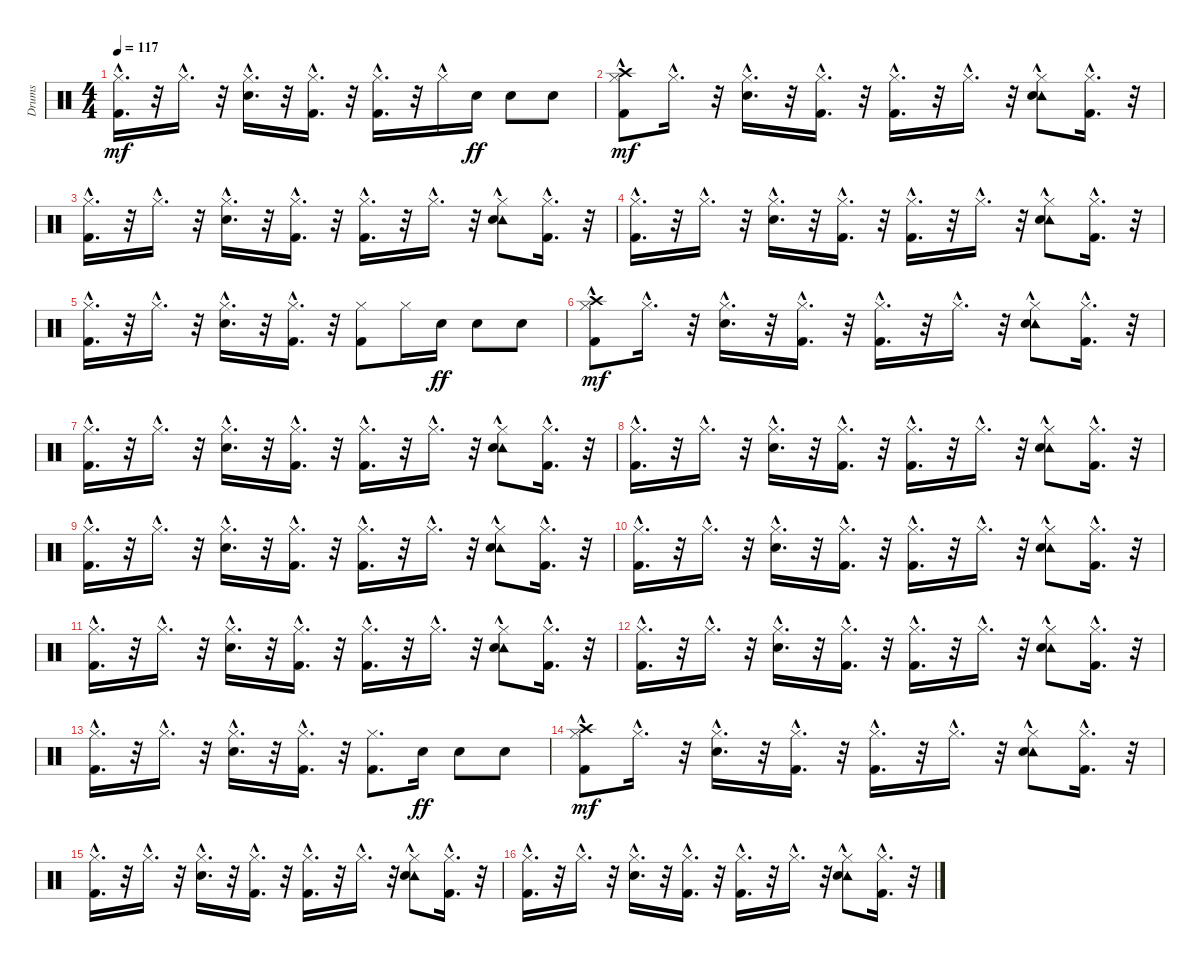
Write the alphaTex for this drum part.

\track ("Drums" "Drums") {instrument percussion}
\staff {score}
\articulation defaults
\ts (4 4)
\tempo 117
\clef neutral
\ks c
("Kick (hit) 2"{hac} "Hi-Hat (closed)"{hac}).16{d dy mf} r.32 "Hi-Hat (closed)"{hac}.16{d} r.32 ("Snare (hit) 2"{hac} "Hi-Hat (closed)"{hac}).16{d} r.32 ("Kick (hit) 2"{hac} "Hi-Hat (closed)"{hac}).16{d} r.32 ("Kick (hit) 2"{hac} "Hi-Hat (closed)"{hac}).16{d} r.32 "Hi-Hat (closed)"{hac}.16 "Snare (hit) 2".16{dy ff} "Snare (hit) 2".8 "Snare (hit) 2".8 |
("Crash high (hit)" "Kick (hit) 2"{hac} "Hi-Hat (closed)"{hac}).8{dy mf} "Hi-Hat (closed)"{hac}.16{d} r.32 ("Snare (hit) 2"{hac} "Hi-Hat (closed)"{hac}).16{d} r.32 ("Kick (hit) 2"{hac} "Hi-Hat (closed)"{hac}).16{d} r.32 ("Kick (hit) 2"{hac} "Hi-Hat (closed)"{hac}).16{d} r.32 "Hi-Hat (closed)"{hac}.16{d} r.32 ("Tambourine (hit)" "Snare (hit) 2"{hac} "Hi-Hat (closed)"{hac}).8 ("Kick (hit) 2"{hac} "Hi-Hat (closed)"{hac}).16{d} r.32 |
("Kick (hit) 2"{hac} "Hi-Hat (closed)"{hac}).16{d} r.32 "Hi-Hat (closed)"{hac}.16{d} r.32 ("Snare (hit) 2"{hac} "Hi-Hat (closed)"{hac}).16{d} r.32 ("Kick (hit) 2"{hac} "Hi-Hat (closed)"{hac}).16{d} r.32 ("Kick (hit) 2"{hac} "Hi-Hat (closed)"{hac}).16{d} r.32 "Hi-Hat (closed)"{hac}.16{d} r.32 ("Tambourine (hit)" "Snare (hit) 2"{hac} "Hi-Hat (closed)"{hac}).8 ("Kick (hit) 2"{hac} "Hi-Hat (closed)"{hac}).16{d} r.32 |
("Kick (hit) 2"{hac} "Hi-Hat (closed)"{hac}).16{d} r.32 "Hi-Hat (closed)"{hac}.16{d} r.32 ("Snare (hit) 2"{hac} "Hi-Hat (closed)"{hac}).16{d} r.32 ("Kick (hit) 2"{hac} "Hi-Hat (closed)"{hac}).16{d} r.32 ("Kick (hit) 2"{hac} "Hi-Hat (closed)"{hac}).16{d} r.32 "Hi-Hat (closed)"{hac}.16{d} r.32 ("Tambourine (hit)" "Snare (hit) 2"{hac} "Hi-Hat (closed)"{hac}).8 ("Kick (hit) 2"{hac} "Hi-Hat (closed)"{hac}).16{d} r.32 |
("Kick (hit) 2"{hac} "Hi-Hat (closed)"{hac}).16{d} r.32 "Hi-Hat (closed)"{hac}.16{d} r.32 ("Snare (hit) 2"{hac} "Hi-Hat (closed)"{hac}).16{d} r.32 ("Kick (hit) 2"{hac} "Hi-Hat (closed)"{hac}).16{d} r.32 ("Kick (hit) 2" "Hi-Hat (closed)").8 "Hi-Hat (closed)".16 "Snare (hit) 2".16{dy ff} "Snare (hit) 2".8 "Snare (hit) 2".8 |
("Crash high (hit)" "Kick (hit) 2"{hac} "Hi-Hat (closed)"{hac}).8{dy mf} "Hi-Hat (closed)"{hac}.16{d} r.32 ("Snare (hit) 2"{hac} "Hi-Hat (closed)"{hac}).16{d} r.32 ("Kick (hit) 2"{hac} "Hi-Hat (closed)"{hac}).16{d} r.32 ("Kick (hit) 2"{hac} "Hi-Hat (closed)"{hac}).16{d} r.32 "Hi-Hat (closed)"{hac}.16{d} r.32 ("Tambourine (hit)" "Snare (hit) 2"{hac} "Hi-Hat (closed)"{hac}).8 ("Kick (hit) 2"{hac} "Hi-Hat (closed)"{hac}).16{d} r.32 |
("Kick (hit) 2"{hac} "Hi-Hat (closed)"{hac}).16{d} r.32 "Hi-Hat (closed)"{hac}.16{d} r.32 ("Snare (hit) 2"{hac} "Hi-Hat (closed)"{hac}).16{d} r.32 ("Kick (hit) 2"{hac} "Hi-Hat (closed)"{hac}).16{d} r.32 ("Kick (hit) 2"{hac} "Hi-Hat (closed)"{hac}).16{d} r.32 "Hi-Hat (closed)"{hac}.16{d} r.32 ("Tambourine (hit)" "Snare (hit) 2"{hac} "Hi-Hat (closed)"{hac}).8 ("Kick (hit) 2"{hac} "Hi-Hat (closed)"{hac}).16{d} r.32 |
("Kick (hit) 2"{hac} "Hi-Hat (closed)"{hac}).16{d} r.32 "Hi-Hat (closed)"{hac}.16{d} r.32 ("Snare (hit) 2"{hac} "Hi-Hat (closed)"{hac}).16{d} r.32 ("Kick (hit) 2"{hac} "Hi-Hat (closed)"{hac}).16{d} r.32 ("Kick (hit) 2"{hac} "Hi-Hat (closed)"{hac}).16{d} r.32 "Hi-Hat (closed)"{hac}.16{d} r.32 ("Tambourine (hit)" "Snare (hit) 2"{hac} "Hi-Hat (closed)"{hac}).8 ("Kick (hit) 2"{hac} "Hi-Hat (closed)"{hac}).16{d} r.32 |
("Kick (hit) 2"{hac} "Hi-Hat (closed)"{hac}).16{d} r.32 "Hi-Hat (closed)"{hac}.16{d} r.32 ("Snare (hit) 2"{hac} "Hi-Hat (closed)"{hac}).16{d} r.32 ("Kick (hit) 2"{hac} "Hi-Hat (closed)"{hac}).16{d} r.32 ("Kick (hit) 2"{hac} "Hi-Hat (closed)"{hac}).16{d} r.32 "Hi-Hat (closed)"{hac}.16{d} r.32 ("Tambourine (hit)" "Snare (hit) 2"{hac} "Hi-Hat (closed)"{hac}).8 ("Kick (hit) 2"{hac} "Hi-Hat (closed)"{hac}).16{d} r.32 |
("Kick (hit) 2"{hac} "Hi-Hat (closed)"{hac}).16{d} r.32 "Hi-Hat (closed)"{hac}.16{d} r.32 ("Snare (hit) 2"{hac} "Hi-Hat (closed)"{hac}).16{d} r.32 ("Kick (hit) 2"{hac} "Hi-Hat (closed)"{hac}).16{d} r.32 ("Kick (hit) 2"{hac} "Hi-Hat (closed)"{hac}).16{d} r.32 "Hi-Hat (closed)"{hac}.16{d} r.32 ("Tambourine (hit)" "Snare (hit) 2"{hac} "Hi-Hat (closed)"{hac}).8 ("Kick (hit) 2"{hac} "Hi-Hat (closed)"{hac}).16{d} r.32 |
("Kick (hit) 2"{hac} "Hi-Hat (closed)"{hac}).16{d} r.32 "Hi-Hat (closed)"{hac}.16{d} r.32 ("Snare (hit) 2"{hac} "Hi-Hat (closed)"{hac}).16{d} r.32 ("Kick (hit) 2"{hac} "Hi-Hat (closed)"{hac}).16{d} r.32 ("Kick (hit) 2"{hac} "Hi-Hat (closed)"{hac}).16{d} r.32 "Hi-Hat (closed)"{hac}.16{d} r.32 ("Tambourine (hit)" "Snare (hit) 2"{hac} "Hi-Hat (closed)"{hac}).8 ("Kick (hit) 2"{hac} "Hi-Hat (closed)"{hac}).16{d} r.32 |
("Kick (hit) 2"{hac} "Hi-Hat (closed)"{hac}).16{d} r.32 "Hi-Hat (closed)"{hac}.16{d} r.32 ("Snare (hit) 2"{hac} "Hi-Hat (closed)"{hac}).16{d} r.32 ("Kick (hit) 2"{hac} "Hi-Hat (closed)"{hac}).16{d} r.32 ("Kick (hit) 2"{hac} "Hi-Hat (closed)"{hac}).16{d} r.32 "Hi-Hat (closed)"{hac}.16{d} r.32 ("Tambourine (hit)" "Snare (hit) 2"{hac} "Hi-Hat (closed)"{hac}).8 ("Kick (hit) 2"{hac} "Hi-Hat (closed)"{hac}).16{d} r.32 |
("Kick (hit) 2"{hac} "Hi-Hat (closed)"{hac}).16{d} r.32 "Hi-Hat (closed)"{hac}.16{d} r.32 ("Snare (hit) 2"{hac} "Hi-Hat (closed)"{hac}).16{d} r.32 ("Kick (hit) 2"{hac} "Hi-Hat (closed)"{hac}).16{d} r.32 ("Kick (hit) 2" "Hi-Hat (closed)").8{d} "Snare (hit) 2".16{dy ff} "Snare (hit) 2".8 "Snare (hit) 2".8 |
("Crash high (hit)" "Kick (hit) 2"{hac} "Hi-Hat (closed)"{hac}).8{dy mf} "Hi-Hat (closed)"{hac}.16{d} r.32 ("Snare (hit) 2"{hac} "Hi-Hat (closed)"{hac}).16{d} r.32 ("Kick (hit) 2"{hac} "Hi-Hat (closed)"{hac}).16{d} r.32 ("Kick (hit) 2"{hac} "Hi-Hat (closed)"{hac}).16{d} r.32 "Hi-Hat (closed)"{hac}.16{d} r.32 ("Tambourine (hit)" "Snare (hit) 2"{hac} "Hi-Hat (closed)"{hac}).8 ("Kick (hit) 2"{hac} "Hi-Hat (closed)"{hac}).16{d} r.32 |
("Kick (hit) 2"{hac} "Hi-Hat (closed)"{hac}).16{d} r.32 "Hi-Hat (closed)"{hac}.16{d} r.32 ("Snare (hit) 2"{hac} "Hi-Hat (closed)"{hac}).16{d} r.32 ("Kick (hit) 2"{hac} "Hi-Hat (closed)"{hac}).16{d} r.32 ("Kick (hit) 2"{hac} "Hi-Hat (closed)"{hac}).16{d} r.32 "Hi-Hat (closed)"{hac}.16{d} r.32 ("Tambourine (hit)" "Snare (hit) 2"{hac} "Hi-Hat (closed)"{hac}).8 ("Kick (hit) 2"{hac} "Hi-Hat (closed)"{hac}).16{d} r.32 |
("Kick (hit) 2"{hac} "Hi-Hat (closed)"{hac}).16{d} r.32 "Hi-Hat (closed)"{hac}.16{d} r.32 ("Snare (hit) 2"{hac} "Hi-Hat (closed)"{hac}).16{d} r.32 ("Kick (hit) 2"{hac} "Hi-Hat (closed)"{hac}).16{d} r.32 ("Kick (hit) 2"{hac} "Hi-Hat (closed)"{hac}).16{d} r.32 "Hi-Hat (closed)"{hac}.16{d} r.32 ("Tambourine (hit)" "Snare (hit) 2"{hac} "Hi-Hat (closed)"{hac}).8 ("Kick (hit) 2"{hac} "Hi-Hat (closed)"{hac}).16{d} r.32
